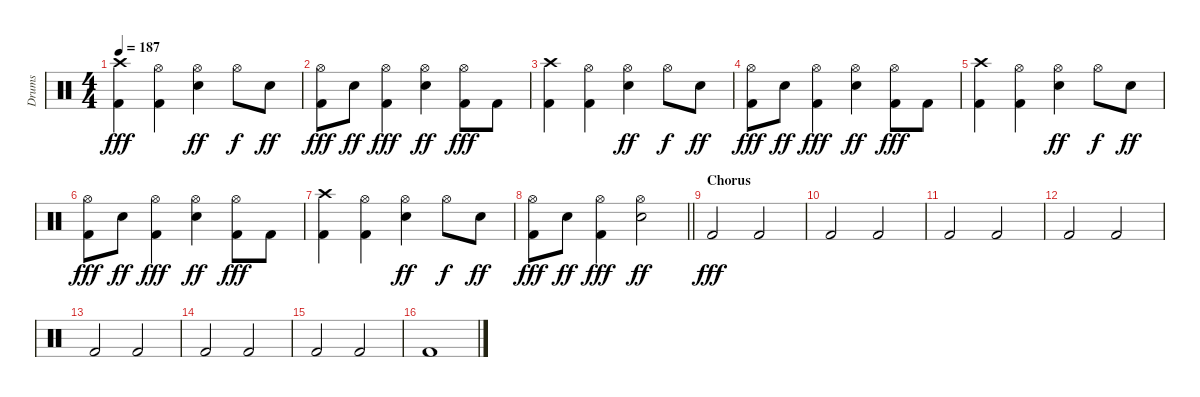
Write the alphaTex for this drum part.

\track ("Drums" "Drums") {instrument percussion}
\staff {score}
\articulation defaults
\ts (4 4)
\tempo 187
\clef neutral
\ks c
("Crash high (hit)" "Kick (hit) 2").4{dy fff} ("Hi-Hat (open)" "Kick (hit) 2").4 ("Hi-Hat (open)" "Snare (hit) 2").4{dy ff} "Hi-Hat (open)".8{dy f} "Snare (hit) 2".8{dy ff} |
("Hi-Hat (open)" "Kick (hit) 2").8{dy fff} "Snare (hit) 2".8{dy ff} ("Hi-Hat (open)" "Kick (hit) 2").4{dy fff} ("Hi-Hat (open)" "Snare (hit) 2").4{dy ff} ("Hi-Hat (open)" "Kick (hit) 2").8{dy fff} "Kick (hit) 2".8 |
("Crash high (hit)" "Kick (hit) 2").4 ("Hi-Hat (open)" "Kick (hit) 2").4 ("Hi-Hat (open)" "Snare (hit) 2").4{dy ff} "Hi-Hat (open)".8{dy f} "Snare (hit) 2".8{dy ff} |
("Hi-Hat (open)" "Kick (hit) 2").8{dy fff} "Snare (hit) 2".8{dy ff} ("Hi-Hat (open)" "Kick (hit) 2").4{dy fff} ("Hi-Hat (open)" "Snare (hit) 2").4{dy ff} ("Hi-Hat (open)" "Kick (hit) 2").8{dy fff} "Kick (hit) 2".8 |
("Crash high (hit)" "Kick (hit) 2").4 ("Hi-Hat (open)" "Kick (hit) 2").4 ("Hi-Hat (open)" "Snare (hit) 2").4{dy ff} "Hi-Hat (open)".8{dy f} "Snare (hit) 2".8{dy ff} |
("Hi-Hat (open)" "Kick (hit) 2").8{dy fff} "Snare (hit) 2".8{dy ff} ("Hi-Hat (open)" "Kick (hit) 2").4{dy fff} ("Hi-Hat (open)" "Snare (hit) 2").4{dy ff} ("Hi-Hat (open)" "Kick (hit) 2").8{dy fff} "Kick (hit) 2".8 |
("Crash high (hit)" "Kick (hit) 2").4 ("Hi-Hat (open)" "Kick (hit) 2").4 ("Hi-Hat (open)" "Snare (hit) 2").4{dy ff} "Hi-Hat (open)".8{dy f} "Snare (hit) 2".8{dy ff} |
\barLineRight lightlight
("Hi-Hat (open)" "Kick (hit) 2").8{dy fff} "Snare (hit) 2".8{dy ff} ("Hi-Hat (open)" "Kick (hit) 2").4{dy fff} ("Hi-Hat (open)" "Snare (hit) 2").2{dy ff} |
\section ("" "Chorus")
"Kick (hit) 2".2{dy fff} "Kick (hit) 2".2 |
"Kick (hit) 2".2 "Kick (hit) 2".2 |
"Kick (hit) 2".2 "Kick (hit) 2".2 |
"Kick (hit) 2".2 "Kick (hit) 2".2 |
"Kick (hit) 2".2 "Kick (hit) 2".2 |
"Kick (hit) 2".2 "Kick (hit) 2".2 |
"Kick (hit) 2".2 "Kick (hit) 2".2 |
"Kick (hit) 2".1
